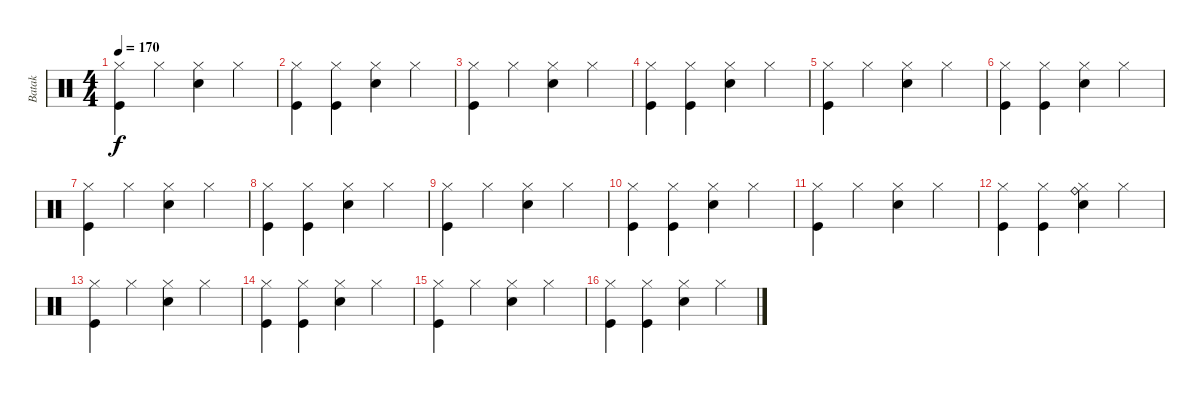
\track ("Batak" "Batak") {instrument percussion}
\staff {score}
\articulation defaults
\ts (4 4)
\tempo 170
\clef neutral
\ks c
("Hi-Hat (closed)" "Kick (hit)").4{dy f} "Hi-Hat (closed)".4 ("Hi-Hat (closed)" "Snare (hit) 2").4 "Hi-Hat (closed)".4 |
("Hi-Hat (closed)" "Kick (hit)").4 ("Hi-Hat (closed)" "Kick (hit)").4 ("Hi-Hat (closed)" "Snare (hit) 2").4 "Hi-Hat (closed)".4 |
("Hi-Hat (closed)" "Kick (hit)").4 "Hi-Hat (closed)".4 ("Hi-Hat (closed)" "Snare (hit) 2").4 "Hi-Hat (closed)".4 |
("Hi-Hat (closed)" "Kick (hit)").4 ("Hi-Hat (closed)" "Kick (hit)").4 ("Hi-Hat (closed)" "Snare (hit) 2").4 "Hi-Hat (closed)".4 |
("Hi-Hat (closed)" "Kick (hit)").4 "Hi-Hat (closed)".4 ("Hi-Hat (closed)" "Snare (hit) 2").4 "Hi-Hat (closed)".4 |
("Hi-Hat (closed)" "Kick (hit)").4 ("Hi-Hat (closed)" "Kick (hit)").4 ("Hi-Hat (closed)" "Snare (hit) 2").4 "Hi-Hat (closed)".4 |
("Hi-Hat (closed)" "Kick (hit)").4 "Hi-Hat (closed)".4 ("Hi-Hat (closed)" "Snare (hit) 2").4 "Hi-Hat (closed)".4 |
("Hi-Hat (closed)" "Kick (hit)").4 ("Hi-Hat (closed)" "Kick (hit)").4 ("Hi-Hat (closed)" "Snare (hit) 2").4 "Hi-Hat (closed)".4 |
("Hi-Hat (closed)" "Kick (hit)").4 "Hi-Hat (closed)".4 ("Hi-Hat (closed)" "Snare (hit) 2").4 "Hi-Hat (closed)".4 |
("Hi-Hat (closed)" "Kick (hit)").4 ("Hi-Hat (closed)" "Kick (hit)").4 ("Hi-Hat (closed)" "Snare (hit) 2").4 "Hi-Hat (closed)".4 |
("Hi-Hat (closed)" "Kick (hit)").4 "Hi-Hat (closed)".4 ("Hi-Hat (closed)" "Snare (hit) 2").4 "Hi-Hat (closed)".4 |
("Hi-Hat (closed)" "Kick (hit)").4 ("Hi-Hat (closed)" "Kick (hit)").4 ("Hi-Hat (closed)" "Snare (hit) 2" "Ride (bell)").4 "Hi-Hat (closed)".4 |
("Hi-Hat (closed)" "Kick (hit)").4 "Hi-Hat (closed)".4 ("Hi-Hat (closed)" "Snare (hit) 2").4 "Hi-Hat (closed)".4 |
("Hi-Hat (closed)" "Kick (hit)").4 ("Hi-Hat (closed)" "Kick (hit)").4 ("Hi-Hat (closed)" "Snare (hit) 2").4 "Hi-Hat (closed)".4 |
("Hi-Hat (closed)" "Kick (hit)").4 "Hi-Hat (closed)".4 ("Hi-Hat (closed)" "Snare (hit) 2").4 "Hi-Hat (closed)".4 |
("Hi-Hat (closed)" "Kick (hit)").4 ("Hi-Hat (closed)" "Kick (hit)").4 ("Hi-Hat (closed)" "Snare (hit) 2").4 "Hi-Hat (closed)".4
